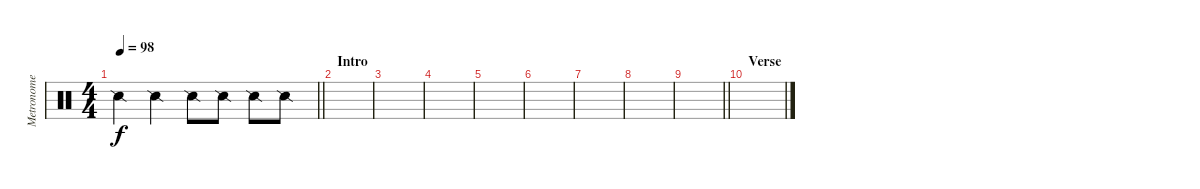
\track ("Metronome" "Metronome") {instrument percussion}
\staff {score}
\articulation defaults
\ts (4 4)
\tempo 98
\clef neutral
\barLineRight lightlight
\ks c "Snare (side stick) 2".4{dy f} "Snare (side stick) 2".4 "Snare (side stick) 2".8 "Snare (side stick) 2".8 "Snare (side stick) 2".8 "Snare (side stick) 2".8
|
\section ("" "Intro")
|
|
|
|
|
|
|
\barLineRight lightlight
|
\section ("" "Verse")
